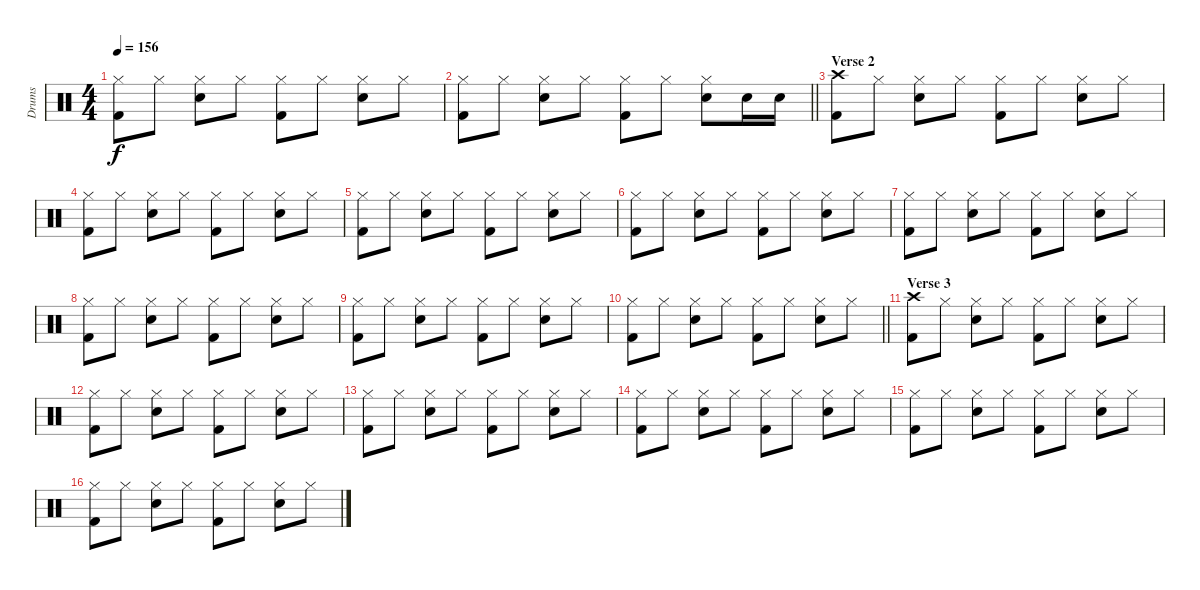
\track ("Drums" "Drums") {instrument percussion}
\staff {score}
\articulation defaults
\ts (4 4)
\tempo 156
\clef neutral
\ks c
("Hi-Hat (closed)" "Kick (hit) 2").8{dy f} "Hi-Hat (closed)".8 ("Hi-Hat (closed)" "Electric Snare (hit)").8 "Hi-Hat (closed)".8 ("Hi-Hat (closed)" "Kick (hit) 2").8 "Hi-Hat (closed)".8 ("Hi-Hat (closed)" "Electric Snare (hit)").8 "Hi-Hat (closed)".8 |
\barLineRight lightlight
("Hi-Hat (closed)" "Kick (hit) 2").8 "Hi-Hat (closed)".8 ("Hi-Hat (closed)" "Electric Snare (hit)").8 "Hi-Hat (closed)".8 ("Hi-Hat (closed)" "Kick (hit) 2").8 "Hi-Hat (closed)".8 ("Hi-Hat (closed)" "Electric Snare (hit)").8 "Electric Snare (hit)".16 "Electric Snare (hit)".16 |
\section ("" "Verse 2")
("Crash high (hit)" "Kick (hit) 2").8 "Hi-Hat (closed)".8 ("Hi-Hat (closed)" "Electric Snare (hit)").8 "Hi-Hat (closed)".8 ("Hi-Hat (closed)" "Kick (hit) 2").8 "Hi-Hat (closed)".8 ("Hi-Hat (closed)" "Electric Snare (hit)").8 "Hi-Hat (closed)".8 |
("Hi-Hat (closed)" "Kick (hit) 2").8 "Hi-Hat (closed)".8 ("Hi-Hat (closed)" "Electric Snare (hit)").8 "Hi-Hat (closed)".8 ("Hi-Hat (closed)" "Kick (hit) 2").8 "Hi-Hat (closed)".8 ("Hi-Hat (closed)" "Electric Snare (hit)").8 "Hi-Hat (closed)".8 |
("Hi-Hat (closed)" "Kick (hit) 2").8 "Hi-Hat (closed)".8 ("Hi-Hat (closed)" "Electric Snare (hit)").8 "Hi-Hat (closed)".8 ("Hi-Hat (closed)" "Kick (hit) 2").8 "Hi-Hat (closed)".8 ("Hi-Hat (closed)" "Electric Snare (hit)").8 "Hi-Hat (closed)".8 |
("Hi-Hat (closed)" "Kick (hit) 2").8 "Hi-Hat (closed)".8 ("Hi-Hat (closed)" "Electric Snare (hit)").8 "Hi-Hat (closed)".8 ("Hi-Hat (closed)" "Kick (hit) 2").8 "Hi-Hat (closed)".8 ("Hi-Hat (closed)" "Electric Snare (hit)").8 "Hi-Hat (closed)".8 |
("Hi-Hat (closed)" "Kick (hit) 2").8 "Hi-Hat (closed)".8 ("Hi-Hat (closed)" "Electric Snare (hit)").8 "Hi-Hat (closed)".8 ("Hi-Hat (closed)" "Kick (hit) 2").8 "Hi-Hat (closed)".8 ("Hi-Hat (closed)" "Electric Snare (hit)").8 "Hi-Hat (closed)".8 |
("Hi-Hat (closed)" "Kick (hit) 2").8 "Hi-Hat (closed)".8 ("Hi-Hat (closed)" "Electric Snare (hit)").8 "Hi-Hat (closed)".8 ("Hi-Hat (closed)" "Kick (hit) 2").8 "Hi-Hat (closed)".8 ("Hi-Hat (closed)" "Electric Snare (hit)").8 "Hi-Hat (closed)".8 |
("Hi-Hat (closed)" "Kick (hit) 2").8 "Hi-Hat (closed)".8 ("Hi-Hat (closed)" "Electric Snare (hit)").8 "Hi-Hat (closed)".8 ("Hi-Hat (closed)" "Kick (hit) 2").8 "Hi-Hat (closed)".8 ("Hi-Hat (closed)" "Electric Snare (hit)").8 "Hi-Hat (closed)".8 |
\barLineRight lightlight
("Hi-Hat (closed)" "Kick (hit) 2").8 "Hi-Hat (closed)".8 ("Hi-Hat (closed)" "Electric Snare (hit)").8 "Hi-Hat (closed)".8 ("Hi-Hat (closed)" "Kick (hit) 2").8 "Hi-Hat (closed)".8 ("Hi-Hat (closed)" "Electric Snare (hit)").8 "Hi-Hat (closed)".8 |
\section ("" "Verse 3")
("Crash high (hit)" "Kick (hit) 2").8 "Hi-Hat (closed)".8 ("Hi-Hat (closed)" "Electric Snare (hit)").8 "Hi-Hat (closed)".8 ("Hi-Hat (closed)" "Kick (hit) 2").8 "Hi-Hat (closed)".8 ("Hi-Hat (closed)" "Electric Snare (hit)").8 "Hi-Hat (closed)".8 |
("Hi-Hat (closed)" "Kick (hit) 2").8 "Hi-Hat (closed)".8 ("Hi-Hat (closed)" "Electric Snare (hit)").8 "Hi-Hat (closed)".8 ("Hi-Hat (closed)" "Kick (hit) 2").8 "Hi-Hat (closed)".8 ("Hi-Hat (closed)" "Electric Snare (hit)").8 "Hi-Hat (closed)".8 |
("Hi-Hat (closed)" "Kick (hit) 2").8 "Hi-Hat (closed)".8 ("Hi-Hat (closed)" "Electric Snare (hit)").8 "Hi-Hat (closed)".8 ("Hi-Hat (closed)" "Kick (hit) 2").8 "Hi-Hat (closed)".8 ("Hi-Hat (closed)" "Electric Snare (hit)").8 "Hi-Hat (closed)".8 |
("Hi-Hat (closed)" "Kick (hit) 2").8 "Hi-Hat (closed)".8 ("Hi-Hat (closed)" "Electric Snare (hit)").8 "Hi-Hat (closed)".8 ("Hi-Hat (closed)" "Kick (hit) 2").8 "Hi-Hat (closed)".8 ("Hi-Hat (closed)" "Electric Snare (hit)").8 "Hi-Hat (closed)".8 |
("Hi-Hat (closed)" "Kick (hit) 2").8 "Hi-Hat (closed)".8 ("Hi-Hat (closed)" "Electric Snare (hit)").8 "Hi-Hat (closed)".8 ("Hi-Hat (closed)" "Kick (hit) 2").8 "Hi-Hat (closed)".8 ("Hi-Hat (closed)" "Electric Snare (hit)").8 "Hi-Hat (closed)".8 |
("Hi-Hat (closed)" "Kick (hit) 2").8 "Hi-Hat (closed)".8 ("Hi-Hat (closed)" "Electric Snare (hit)").8 "Hi-Hat (closed)".8 ("Hi-Hat (closed)" "Kick (hit) 2").8 "Hi-Hat (closed)".8 ("Hi-Hat (closed)" "Electric Snare (hit)").8 "Hi-Hat (closed)".8
